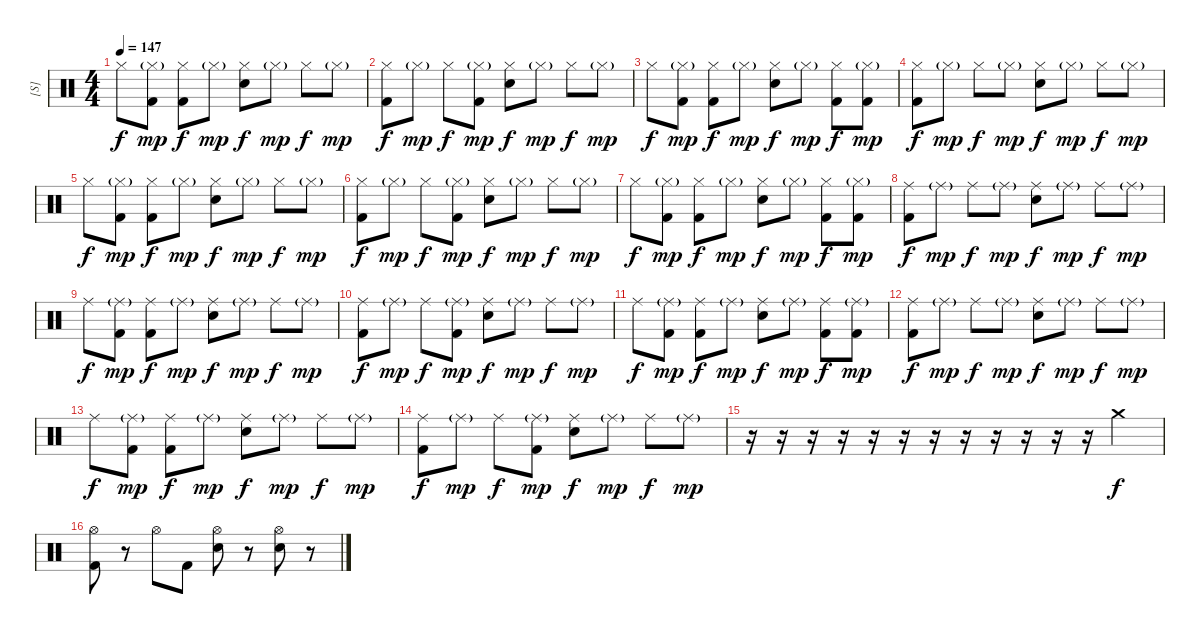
\track ("[S]" "[S]") {instrument percussion}
\staff {score}
\articulation defaults
\ts (4 4)
\tempo 147
\clef neutral
\ks c "Hi-Hat (closed)".8{dy f}
("Hi-Hat (closed)"{g} "Kick (hit) 2").8{dy mp} ("Hi-Hat (closed)" "Kick (hit) 2").8{dy f} "Hi-Hat (closed)"{g}.8{dy mp} ("Hi-Hat (closed)" "Snare (hit) 2").8{dy f} "Hi-Hat (closed)"{g}.8{dy mp} "Hi-Hat (closed)".8{dy f} "Hi-Hat (closed)"{g}.8{dy mp} |
("Hi-Hat (closed)" "Kick (hit) 2").8{dy f} "Hi-Hat (closed)"{g}.8{dy mp} "Hi-Hat (closed)".8{dy f} ("Hi-Hat (closed)"{g} "Kick (hit) 2").8{dy mp} ("Hi-Hat (closed)" "Snare (hit) 2").8{dy f} "Hi-Hat (closed)"{g}.8{dy mp} "Hi-Hat (closed)".8{dy f} "Hi-Hat (closed)"{g}.8{dy mp} |
"Hi-Hat (closed)".8{dy f} ("Hi-Hat (closed)"{g} "Kick (hit) 2").8{dy mp} ("Hi-Hat (closed)" "Kick (hit) 2").8{dy f} "Hi-Hat (closed)"{g}.8{dy mp} ("Hi-Hat (closed)" "Snare (hit) 2").8{dy f} "Hi-Hat (closed)"{g}.8{dy mp} ("Hi-Hat (closed)" "Kick (hit) 2").8{dy f} ("Hi-Hat (closed)"{g} "Kick (hit) 2").8{dy mp} |
("Hi-Hat (closed)" "Kick (hit) 2").8{dy f} "Hi-Hat (closed)"{g}.8{dy mp} "Hi-Hat (closed)".8{dy f} "Hi-Hat (closed)"{g}.8{dy mp} ("Hi-Hat (closed)" "Snare (hit) 2").8{dy f} "Hi-Hat (closed)"{g}.8{dy mp} "Hi-Hat (closed)".8{dy f} "Hi-Hat (closed)"{g}.8{dy mp} |
"Hi-Hat (closed)".8{dy f} ("Hi-Hat (closed)"{g} "Kick (hit) 2").8{dy mp} ("Hi-Hat (closed)" "Kick (hit) 2").8{dy f} "Hi-Hat (closed)"{g}.8{dy mp} ("Hi-Hat (closed)" "Snare (hit) 2").8{dy f} "Hi-Hat (closed)"{g}.8{dy mp} "Hi-Hat (closed)".8{dy f} "Hi-Hat (closed)"{g}.8{dy mp} |
("Hi-Hat (closed)" "Kick (hit) 2").8{dy f} "Hi-Hat (closed)"{g}.8{dy mp} "Hi-Hat (closed)".8{dy f} ("Hi-Hat (closed)"{g} "Kick (hit) 2").8{dy mp} ("Hi-Hat (closed)" "Snare (hit) 2").8{dy f} "Hi-Hat (closed)"{g}.8{dy mp} "Hi-Hat (closed)".8{dy f} "Hi-Hat (closed)"{g}.8{dy mp} |
"Hi-Hat (closed)".8{dy f} ("Hi-Hat (closed)"{g} "Kick (hit) 2").8{dy mp} ("Hi-Hat (closed)" "Kick (hit) 2").8{dy f} "Hi-Hat (closed)"{g}.8{dy mp} ("Hi-Hat (closed)" "Snare (hit) 2").8{dy f} "Hi-Hat (closed)"{g}.8{dy mp} ("Hi-Hat (closed)" "Kick (hit) 2").8{dy f} ("Hi-Hat (closed)"{g} "Kick (hit) 2").8{dy mp} |
("Ride (middle)" "Kick (hit) 2").8{dy f} "Ride (middle)"{g}.8{dy mp} "Ride (middle)".8{dy f} "Ride (middle)"{g}.8{dy mp} ("Ride (middle)" "Snare (hit) 2").8{dy f} "Ride (middle)"{g}.8{dy mp} "Ride (middle)".8{dy f} "Ride (middle)"{g}.8{dy mp} |
"Ride (middle)".8{dy f} ("Ride (middle)"{g} "Kick (hit) 2").8{dy mp} ("Ride (middle)" "Kick (hit) 2").8{dy f} "Ride (middle)"{g}.8{dy mp} ("Ride (middle)" "Snare (hit) 2").8{dy f} "Ride (middle)"{g}.8{dy mp} "Ride (middle)".8{dy f} "Ride (middle)"{g}.8{dy mp} |
("Ride (middle)" "Kick (hit) 2").8{dy f} "Ride (middle)"{g}.8{dy mp} "Ride (middle)".8{dy f} ("Ride (middle)"{g} "Kick (hit) 2").8{dy mp} ("Ride (middle)" "Snare (hit) 2").8{dy f} "Ride (middle)"{g}.8{dy mp} "Ride (middle)".8{dy f} "Ride (middle)"{g}.8{dy mp} |
"Ride (middle)".8{dy f} ("Ride (middle)"{g} "Kick (hit) 2").8{dy mp} ("Ride (middle)" "Kick (hit) 2").8{dy f} "Ride (middle)"{g}.8{dy mp} ("Ride (middle)" "Snare (hit) 2").8{dy f} "Ride (middle)"{g}.8{dy mp} ("Ride (middle)" "Kick (hit) 2").8{dy f} ("Ride (middle)"{g} "Kick (hit) 2").8{dy mp} |
("Ride (middle)" "Kick (hit) 2").8{dy f} "Ride (middle)"{g}.8{dy mp} "Ride (middle)".8{dy f} "Ride (middle)"{g}.8{dy mp} ("Ride (middle)" "Snare (hit) 2").8{dy f} "Ride (middle)"{g}.8{dy mp} "Ride (middle)".8{dy f} "Ride (middle)"{g}.8{dy mp} |
"Ride (middle)".8{dy f} ("Ride (middle)"{g} "Kick (hit) 2").8{dy mp} ("Ride (middle)" "Kick (hit) 2").8{dy f} "Ride (middle)"{g}.8{dy mp} ("Ride (middle)" "Snare (hit) 2").8{dy f} "Ride (middle)"{g}.8{dy mp} "Ride (middle)".8{dy f} "Ride (middle)"{g}.8{dy mp} |
("Ride (middle)" "Kick (hit) 2").8{dy f} "Ride (middle)"{g}.8{dy mp} "Ride (middle)".8{dy f} ("Ride (middle)"{g} "Kick (hit) 2").8{dy mp} ("Ride (middle)" "Snare (hit) 2").8{dy f} "Ride (middle)"{g}.8{dy mp} "Ride (middle)".8{dy f} "Ride (middle)"{g}.8{dy mp} |
r.16 r.16 r.16 r.16 r.16 r.16 r.16 r.16 r.16 r.16 r.16 r.16 "Crash medium (hit)".4{dy f} |
("Hi-Hat (open)" "Kick (hit) 2").8 r.8 "Hi-Hat (open)".8 "Kick (hit) 2".8 ("Hi-Hat (open)" "Snare (hit) 2").8 r.8 ("Hi-Hat (open)" "Snare (hit) 2").8 r.8
